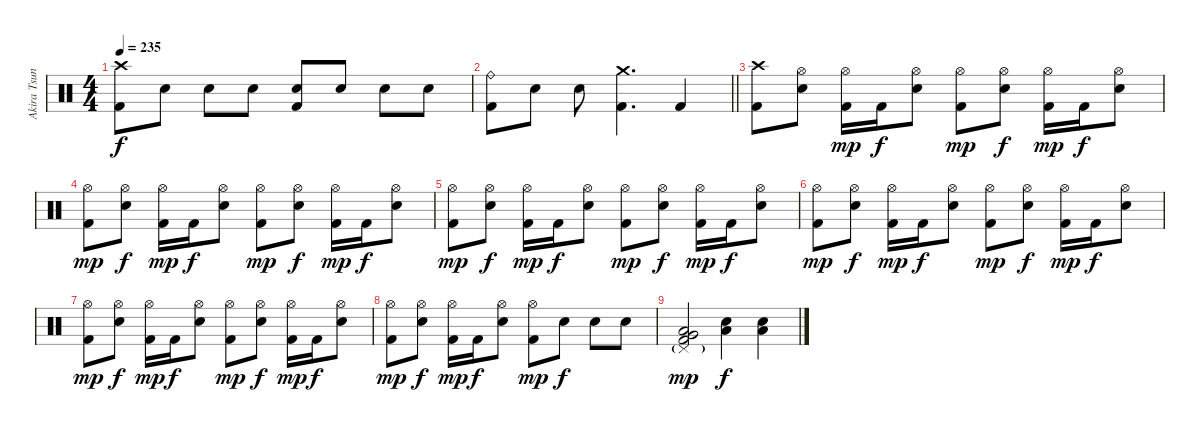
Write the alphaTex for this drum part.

\track ("Akira Tsuneoka" "Akira Tsun") {instrument percussion}
\staff {score}
\articulation defaults
\ts (4 4)
\tempo 235
\clef neutral
\ks c
("Crash high (hit)" "Kick (hit) 2").8{dy f} "Electric Snare (hit)".8 "Electric Snare (hit)".8 "Electric Snare (hit)".8 ("Electric Snare (hit)" "Kick (hit) 2").8 "Electric Snare (hit)".8 "Electric Snare (hit)".8 "Electric Snare (hit)".8 |
\barLineRight lightlight
("Ride (bell)" "Kick (hit) 2").8 "Electric Snare (hit)".8 "Electric Snare (hit)".8 ("Crash medium (hit)" "Kick (hit) 2").4{d} "Kick (hit) 2".4 |
\section ("" "")
("Crash high (hit)" "Kick (hit) 2").8 ("Hi-Hat (open)" "Electric Snare (hit)").8 ("Hi-Hat (open)" "Kick (hit) 2").16{dy mp} "Kick (hit) 2".16{dy f} ("Hi-Hat (open)" "Electric Snare (hit)").8 ("Hi-Hat (open)" "Kick (hit) 2").8{dy mp} ("Hi-Hat (open)" "Electric Snare (hit)").8{dy f} ("Hi-Hat (open)" "Kick (hit) 2").16{dy mp} "Kick (hit) 2".16{dy f} ("Hi-Hat (open)" "Electric Snare (hit)").8 |
("Hi-Hat (open)" "Kick (hit) 2").8{dy mp} ("Hi-Hat (open)" "Electric Snare (hit)").8{dy f} ("Hi-Hat (open)" "Kick (hit) 2").16{dy mp} "Kick (hit) 2".16{dy f} ("Hi-Hat (open)" "Electric Snare (hit)").8 ("Hi-Hat (open)" "Kick (hit) 2").8{dy mp} ("Hi-Hat (open)" "Electric Snare (hit)").8{dy f} ("Hi-Hat (open)" "Kick (hit) 2").16{dy mp} "Kick (hit) 2".16{dy f} ("Hi-Hat (open)" "Electric Snare (hit)").8 |
("Hi-Hat (open)" "Kick (hit) 2").8{dy mp} ("Hi-Hat (open)" "Electric Snare (hit)").8{dy f} ("Hi-Hat (open)" "Kick (hit) 2").16{dy mp} "Kick (hit) 2".16{dy f} ("Hi-Hat (open)" "Electric Snare (hit)").8 ("Hi-Hat (open)" "Kick (hit) 2").8{dy mp} ("Hi-Hat (open)" "Electric Snare (hit)").8{dy f} ("Hi-Hat (open)" "Kick (hit) 2").16{dy mp} "Kick (hit) 2".16{dy f} ("Hi-Hat (open)" "Electric Snare (hit)").8 |
("Hi-Hat (open)" "Kick (hit) 2").8{dy mp} ("Hi-Hat (open)" "Electric Snare (hit)").8{dy f} ("Hi-Hat (open)" "Kick (hit) 2").16{dy mp} "Kick (hit) 2".16{dy f} ("Hi-Hat (open)" "Electric Snare (hit)").8 ("Hi-Hat (open)" "Kick (hit) 2").8{dy mp} ("Hi-Hat (open)" "Electric Snare (hit)").8{dy f} ("Hi-Hat (open)" "Kick (hit) 2").16{dy mp} "Kick (hit) 2".16{dy f} ("Hi-Hat (open)" "Electric Snare (hit)").8 |
("Hi-Hat (open)" "Kick (hit) 2").8{dy mp} ("Hi-Hat (open)" "Electric Snare (hit)").8{dy f} ("Hi-Hat (open)" "Kick (hit) 2").16{dy mp} "Kick (hit) 2".16{dy f} ("Hi-Hat (open)" "Electric Snare (hit)").8 ("Hi-Hat (open)" "Kick (hit) 2").8{dy mp} ("Hi-Hat (open)" "Electric Snare (hit)").8{dy f} ("Hi-Hat (open)" "Kick (hit) 2").16{dy mp} "Kick (hit) 2".16{dy f} ("Hi-Hat (open)" "Electric Snare (hit)").8 |
("Hi-Hat (open)" "Kick (hit) 2").8{dy mp} ("Hi-Hat (open)" "Electric Snare (hit)").8{dy f} ("Hi-Hat (open)" "Kick (hit) 2").16{dy mp} "Kick (hit) 2".16{dy f} ("Hi-Hat (open)" "Electric Snare (hit)").8 ("Hi-Hat (open)" "Kick (hit) 2").8{dy mp} "Electric Snare (hit)".8{dy f} "Electric Snare (hit)".8 "Electric Snare (hit)".8 |
("Pedal Hi-Hat (hit)"{g} "Very Low Tom (hit)" "Low Floor Tom (hit)" "Kick (hit) 2").2{dy mp} ("Electric Snare (hit)" "Low Floor Tom (hit)").4{dy f} ("Electric Snare (hit)" "Low Floor Tom (hit)").4
